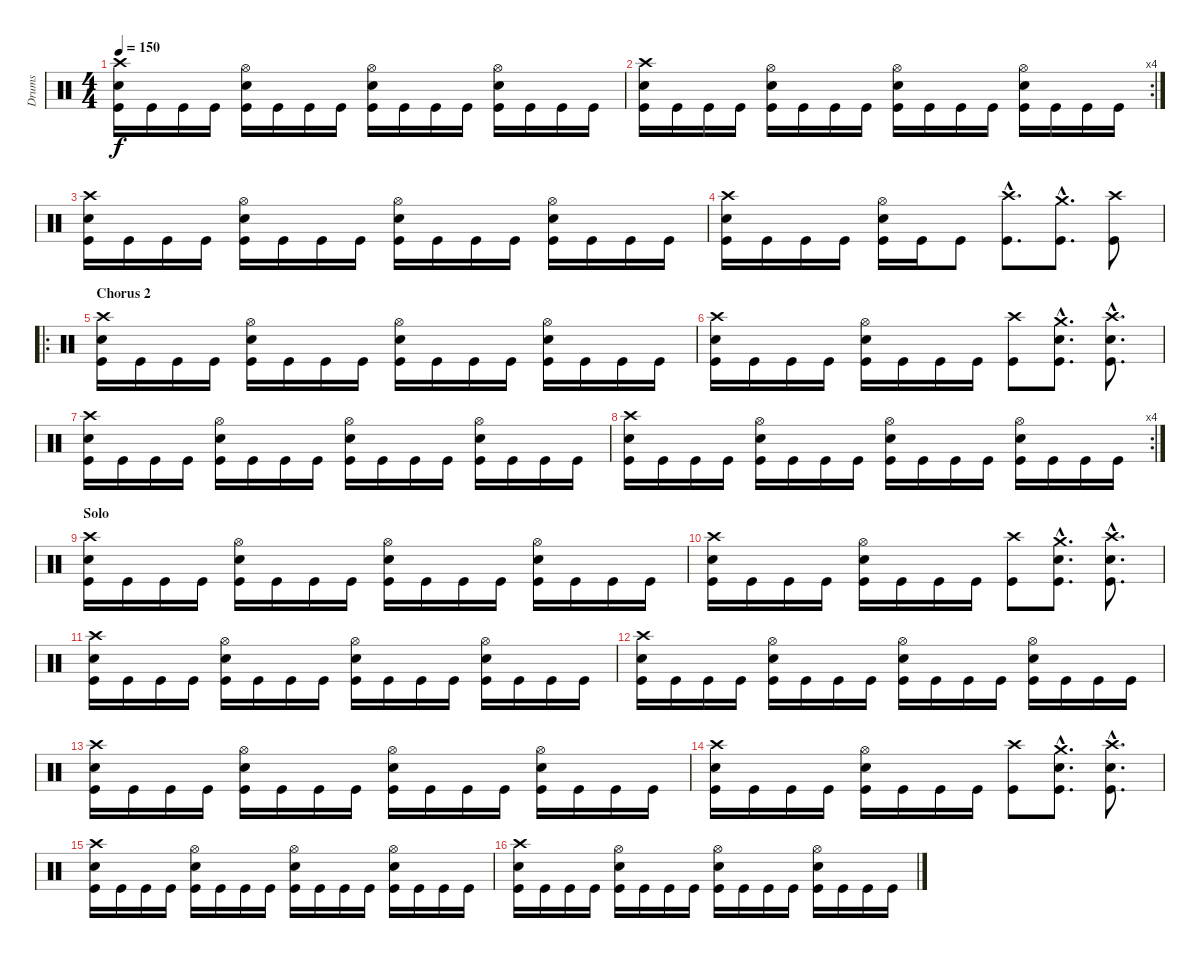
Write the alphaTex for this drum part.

\track ("Drums" "Drums") {instrument percussion}
\staff {score}
\articulation defaults
\ts (4 4)
\tempo 150
\clef neutral
\ks c
("Crash high (hit)" "Snare (hit) 2" "Kick (hit)").16{dy f} "Kick (hit)".16 "Kick (hit)".16 "Kick (hit)".16 ("Hi-Hat (open)" "Snare (hit) 2" "Kick (hit)").16 "Kick (hit)".16 "Kick (hit)".16 "Kick (hit)".16 ("Hi-Hat (open)" "Snare (hit) 2" "Kick (hit)").16 "Kick (hit)".16 "Kick (hit)".16 "Kick (hit)".16 ("Hi-Hat (open)" "Snare (hit) 2" "Kick (hit)").16 "Kick (hit)".16 "Kick (hit)".16 "Kick (hit)".16 |
\rc 4
("Crash high (hit)" "Snare (hit) 2" "Kick (hit)").16 "Kick (hit)".16 "Kick (hit)".16 "Kick (hit)".16 ("Hi-Hat (open)" "Snare (hit) 2" "Kick (hit)").16 "Kick (hit)".16 "Kick (hit)".16 "Kick (hit)".16 ("Hi-Hat (open)" "Snare (hit) 2" "Kick (hit)").16 "Kick (hit)".16 "Kick (hit)".16 "Kick (hit)".16 ("Hi-Hat (open)" "Snare (hit) 2" "Kick (hit)").16 "Kick (hit)".16 "Kick (hit)".16 "Kick (hit)".16 |
("Crash high (hit)" "Snare (hit) 2" "Kick (hit)").16 "Kick (hit)".16 "Kick (hit)".16 "Kick (hit)".16 ("Hi-Hat (open)" "Snare (hit) 2" "Kick (hit)").16 "Kick (hit)".16 "Kick (hit)".16 "Kick (hit)".16 ("Hi-Hat (open)" "Snare (hit) 2" "Kick (hit)").16 "Kick (hit)".16 "Kick (hit)".16 "Kick (hit)".16 ("Hi-Hat (open)" "Snare (hit) 2" "Kick (hit)").16 "Kick (hit)".16 "Kick (hit)".16 "Kick (hit)".16 |
("Crash high (hit)" "Snare (hit) 2" "Kick (hit)").16 "Kick (hit)".16 "Kick (hit)".16 "Kick (hit)".16 ("Hi-Hat (open)" "Snare (hit) 2" "Kick (hit)").16 "Kick (hit)".16 "Kick (hit)".8 ("Crash high (hit)"{hac} "Kick (hit)"{hac}).8{d} ("Crash medium (hit)"{hac} "Kick (hit)"{hac}).8{d} ("Crash high (hit)" "Kick (hit)").8 |
\ro
\section ("" "Chorus 2")
("Crash high (hit)" "Snare (hit) 2" "Kick (hit)").16 "Kick (hit)".16 "Kick (hit)".16 "Kick (hit)".16 ("Hi-Hat (open)" "Snare (hit) 2" "Kick (hit)").16 "Kick (hit)".16 "Kick (hit)".16 "Kick (hit)".16 ("Hi-Hat (open)" "Snare (hit) 2" "Kick (hit)").16 "Kick (hit)".16 "Kick (hit)".16 "Kick (hit)".16 ("Hi-Hat (open)" "Snare (hit) 2" "Kick (hit)").16 "Kick (hit)".16 "Kick (hit)".16 "Kick (hit)".16 |
("Crash high (hit)" "Snare (hit) 2" "Kick (hit)").16 "Kick (hit)".16 "Kick (hit)".16 "Kick (hit)".16 ("Hi-Hat (open)" "Snare (hit) 2" "Kick (hit)").16 "Kick (hit)".16 "Kick (hit)".16 "Kick (hit)".16 ("Crash high (hit)" "Kick (hit)").8 ("Crash medium (hit)"{hac} "Snare (hit) 2"{hac} "Kick (hit)"{hac}).8{d} ("Crash high (hit)"{hac} "Snare (hit) 2"{hac} "Kick (hit)"{hac}).8{d} |
("Crash high (hit)" "Snare (hit) 2" "Kick (hit)").16 "Kick (hit)".16 "Kick (hit)".16 "Kick (hit)".16 ("Hi-Hat (open)" "Snare (hit) 2" "Kick (hit)").16 "Kick (hit)".16 "Kick (hit)".16 "Kick (hit)".16 ("Hi-Hat (open)" "Snare (hit) 2" "Kick (hit)").16 "Kick (hit)".16 "Kick (hit)".16 "Kick (hit)".16 ("Hi-Hat (open)" "Snare (hit) 2" "Kick (hit)").16 "Kick (hit)".16 "Kick (hit)".16 "Kick (hit)".16 |
\rc 4
("Crash high (hit)" "Snare (hit) 2" "Kick (hit)").16 "Kick (hit)".16 "Kick (hit)".16 "Kick (hit)".16 ("Hi-Hat (open)" "Snare (hit) 2" "Kick (hit)").16 "Kick (hit)".16 "Kick (hit)".16 "Kick (hit)".16 ("Hi-Hat (open)" "Snare (hit) 2" "Kick (hit)").16 "Kick (hit)".16 "Kick (hit)".16 "Kick (hit)".16 ("Hi-Hat (open)" "Snare (hit) 2" "Kick (hit)").16 "Kick (hit)".16 "Kick (hit)".16 "Kick (hit)".16 |
\section ("" "Solo")
("Crash high (hit)" "Snare (hit) 2" "Kick (hit)").16 "Kick (hit)".16 "Kick (hit)".16 "Kick (hit)".16 ("Hi-Hat (open)" "Snare (hit) 2" "Kick (hit)").16 "Kick (hit)".16 "Kick (hit)".16 "Kick (hit)".16 ("Hi-Hat (open)" "Snare (hit) 2" "Kick (hit)").16 "Kick (hit)".16 "Kick (hit)".16 "Kick (hit)".16 ("Hi-Hat (open)" "Snare (hit) 2" "Kick (hit)").16 "Kick (hit)".16 "Kick (hit)".16 "Kick (hit)".16 |
("Crash high (hit)" "Snare (hit) 2" "Kick (hit)").16 "Kick (hit)".16 "Kick (hit)".16 "Kick (hit)".16 ("Hi-Hat (open)" "Snare (hit) 2" "Kick (hit)").16 "Kick (hit)".16 "Kick (hit)".16 "Kick (hit)".16 ("Crash high (hit)" "Kick (hit)").8 ("Crash medium (hit)"{hac} "Snare (hit) 2"{hac} "Kick (hit)"{hac}).8{d} ("Crash high (hit)"{hac} "Snare (hit) 2"{hac} "Kick (hit)"{hac}).8{d} |
("Crash high (hit)" "Snare (hit) 2" "Kick (hit)").16 "Kick (hit)".16 "Kick (hit)".16 "Kick (hit)".16 ("Hi-Hat (open)" "Snare (hit) 2" "Kick (hit)").16 "Kick (hit)".16 "Kick (hit)".16 "Kick (hit)".16 ("Hi-Hat (open)" "Snare (hit) 2" "Kick (hit)").16 "Kick (hit)".16 "Kick (hit)".16 "Kick (hit)".16 ("Hi-Hat (open)" "Snare (hit) 2" "Kick (hit)").16 "Kick (hit)".16 "Kick (hit)".16 "Kick (hit)".16 |
("Crash high (hit)" "Snare (hit) 2" "Kick (hit)").16 "Kick (hit)".16 "Kick (hit)".16 "Kick (hit)".16 ("Hi-Hat (open)" "Snare (hit) 2" "Kick (hit)").16 "Kick (hit)".16 "Kick (hit)".16 "Kick (hit)".16 ("Hi-Hat (open)" "Snare (hit) 2" "Kick (hit)").16 "Kick (hit)".16 "Kick (hit)".16 "Kick (hit)".16 ("Hi-Hat (open)" "Snare (hit) 2" "Kick (hit)").16 "Kick (hit)".16 "Kick (hit)".16 "Kick (hit)".16 |
("Crash high (hit)" "Snare (hit) 2" "Kick (hit)").16 "Kick (hit)".16 "Kick (hit)".16 "Kick (hit)".16 ("Hi-Hat (open)" "Snare (hit) 2" "Kick (hit)").16 "Kick (hit)".16 "Kick (hit)".16 "Kick (hit)".16 ("Hi-Hat (open)" "Snare (hit) 2" "Kick (hit)").16 "Kick (hit)".16 "Kick (hit)".16 "Kick (hit)".16 ("Hi-Hat (open)" "Snare (hit) 2" "Kick (hit)").16 "Kick (hit)".16 "Kick (hit)".16 "Kick (hit)".16 |
("Crash high (hit)" "Snare (hit) 2" "Kick (hit)").16 "Kick (hit)".16 "Kick (hit)".16 "Kick (hit)".16 ("Hi-Hat (open)" "Snare (hit) 2" "Kick (hit)").16 "Kick (hit)".16 "Kick (hit)".16 "Kick (hit)".16 ("Crash high (hit)" "Kick (hit)").8 ("Crash medium (hit)"{hac} "Snare (hit) 2"{hac} "Kick (hit)"{hac}).8{d} ("Crash high (hit)"{hac} "Snare (hit) 2"{hac} "Kick (hit)"{hac}).8{d} |
("Crash high (hit)" "Snare (hit) 2" "Kick (hit)").16 "Kick (hit)".16 "Kick (hit)".16 "Kick (hit)".16 ("Hi-Hat (open)" "Snare (hit) 2" "Kick (hit)").16 "Kick (hit)".16 "Kick (hit)".16 "Kick (hit)".16 ("Hi-Hat (open)" "Snare (hit) 2" "Kick (hit)").16 "Kick (hit)".16 "Kick (hit)".16 "Kick (hit)".16 ("Hi-Hat (open)" "Snare (hit) 2" "Kick (hit)").16 "Kick (hit)".16 "Kick (hit)".16 "Kick (hit)".16 |
("Crash high (hit)" "Snare (hit) 2" "Kick (hit)").16 "Kick (hit)".16 "Kick (hit)".16 "Kick (hit)".16 ("Hi-Hat (open)" "Snare (hit) 2" "Kick (hit)").16 "Kick (hit)".16 "Kick (hit)".16 "Kick (hit)".16 ("Hi-Hat (open)" "Snare (hit) 2" "Kick (hit)").16 "Kick (hit)".16 "Kick (hit)".16 "Kick (hit)".16 ("Hi-Hat (open)" "Snare (hit) 2" "Kick (hit)").16 "Kick (hit)".16 "Kick (hit)".16 "Kick (hit)".16
